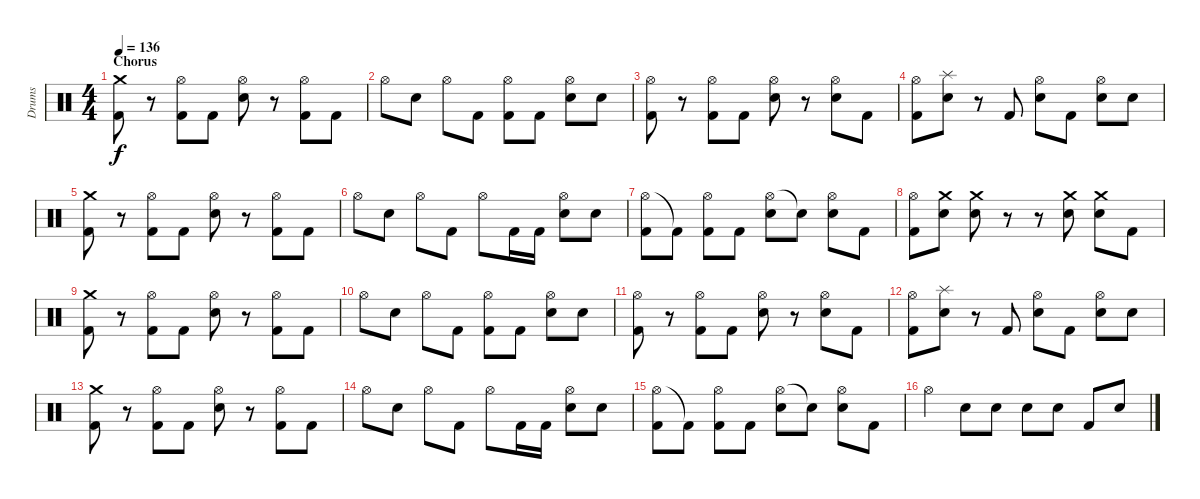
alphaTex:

\track ("Drums" "Drums") {instrument percussion}
\staff {score}
\articulation defaults
\ts (4 4)
\section ("" "Chorus")
\tempo 136
\clef neutral
\ks c
("Crash medium (hit)" "Kick (hit) 2").8{dy f} r.8 ("Hi-Hat (open)" "Kick (hit) 2").8 "Kick (hit) 2".8 ("Hi-Hat (open)" "Electric Snare (hit)").8 r.8 ("Hi-Hat (open)" "Kick (hit) 2").8 "Kick (hit) 2".8 |
"Hi-Hat (open)".8 "Electric Snare (hit)".8 "Hi-Hat (open)".8 "Kick (hit) 2".8 ("Hi-Hat (open)" "Kick (hit) 2").8 "Kick (hit) 2".8 ("Hi-Hat (open)" "Electric Snare (hit)").8 "Electric Snare (hit)".8 |
("Hi-Hat (open)" "Kick (hit) 2").8 r.8 ("Hi-Hat (open)" "Kick (hit) 2").8 "Kick (hit) 2".8 ("Hi-Hat (open)" "Electric Snare (hit)").8 r.8 ("Hi-Hat (open)" "Electric Snare (hit)").8 "Kick (hit) 2".8 |
("Hi-Hat (open)" "Kick (hit) 2").8 ("Splash (hit)" "Electric Snare (hit)").8 r.8 "Kick (hit) 2".8 ("Hi-Hat (open)" "Electric Snare (hit)").8 "Kick (hit) 2".8 ("Hi-Hat (open)" "Electric Snare (hit)").8 "Electric Snare (hit)".8 |
("Crash medium (hit)" "Kick (hit) 2").8 r.8 ("Hi-Hat (open)" "Kick (hit) 2").8 "Kick (hit) 2".8 ("Hi-Hat (open)" "Electric Snare (hit)").8 r.8 ("Hi-Hat (open)" "Kick (hit) 2").8 "Kick (hit) 2".8 |
"Hi-Hat (open)".8 "Electric Snare (hit)".8 "Hi-Hat (open)".8 "Kick (hit) 2".8 "Hi-Hat (open)".8 "Kick (hit) 2".16 "Kick (hit) 2".16 ("Hi-Hat (open)" "Electric Snare (hit)").8 "Electric Snare (hit)".8 |
("Hi-Hat (open)" "Kick (hit) 2").8 "Kick (hit) 2"{t}.8 ("Hi-Hat (open)" "Kick (hit) 2").8 "Kick (hit) 2".8 ("Hi-Hat (open)" "Electric Snare (hit)").8 "Snare (hit)"{t}.8 ("Hi-Hat (open)" "Electric Snare (hit)").8 "Kick (hit) 2".8 |
("Hi-Hat (open)" "Kick (hit) 2").8 ("Crash medium (hit)" "Electric Snare (hit)").8 ("Crash medium (hit)" "Electric Snare (hit)").8 r.8 r.8 ("Crash medium (hit)" "Electric Snare (hit)").8 ("Crash medium (hit)" "Electric Snare (hit)").8 "Kick (hit) 2".8 |
("Crash medium (hit)" "Kick (hit) 2").8 r.8 ("Hi-Hat (open)" "Kick (hit) 2").8 "Kick (hit) 2".8 ("Hi-Hat (open)" "Electric Snare (hit)").8 r.8 ("Hi-Hat (open)" "Kick (hit) 2").8 "Kick (hit) 2".8 |
"Hi-Hat (open)".8 "Electric Snare (hit)".8 "Hi-Hat (open)".8 "Kick (hit) 2".8 ("Hi-Hat (open)" "Kick (hit) 2").8 "Kick (hit) 2".8 ("Hi-Hat (open)" "Electric Snare (hit)").8 "Electric Snare (hit)".8 |
("Hi-Hat (open)" "Kick (hit) 2").8 r.8 ("Hi-Hat (open)" "Kick (hit) 2").8 "Kick (hit) 2".8 ("Hi-Hat (open)" "Electric Snare (hit)").8 r.8 ("Hi-Hat (open)" "Electric Snare (hit)").8 "Kick (hit) 2".8 |
("Hi-Hat (open)" "Kick (hit) 2").8 ("Splash (hit)" "Electric Snare (hit)").8 r.8 "Kick (hit) 2".8 ("Hi-Hat (open)" "Electric Snare (hit)").8 "Kick (hit) 2".8 ("Hi-Hat (open)" "Electric Snare (hit)").8 "Electric Snare (hit)".8 |
("Crash medium (hit)" "Kick (hit) 2").8 r.8 ("Hi-Hat (open)" "Kick (hit) 2").8 "Kick (hit) 2".8 ("Hi-Hat (open)" "Electric Snare (hit)").8 r.8 ("Hi-Hat (open)" "Kick (hit) 2").8 "Kick (hit) 2".8 |
"Hi-Hat (open)".8 "Electric Snare (hit)".8 "Hi-Hat (open)".8 "Kick (hit) 2".8 "Hi-Hat (open)".8 "Kick (hit) 2".16 "Kick (hit) 2".16 ("Hi-Hat (open)" "Electric Snare (hit)").8 "Electric Snare (hit)".8 |
("Hi-Hat (open)" "Kick (hit) 2").8 "Kick (hit) 2"{t}.8 ("Hi-Hat (open)" "Kick (hit) 2").8 "Kick (hit) 2".8 ("Hi-Hat (open)" "Electric Snare (hit)").8 "Snare (hit)"{t}.8 ("Hi-Hat (open)" "Electric Snare (hit)").8 "Kick (hit) 2".8 |
"Hi-Hat (open)".4 "Electric Snare (hit)".8 "Electric Snare (hit)".8 "Electric Snare (hit)".8 "Electric Snare (hit)".8 "Kick (hit) 2".8 "Electric Snare (hit)".8
